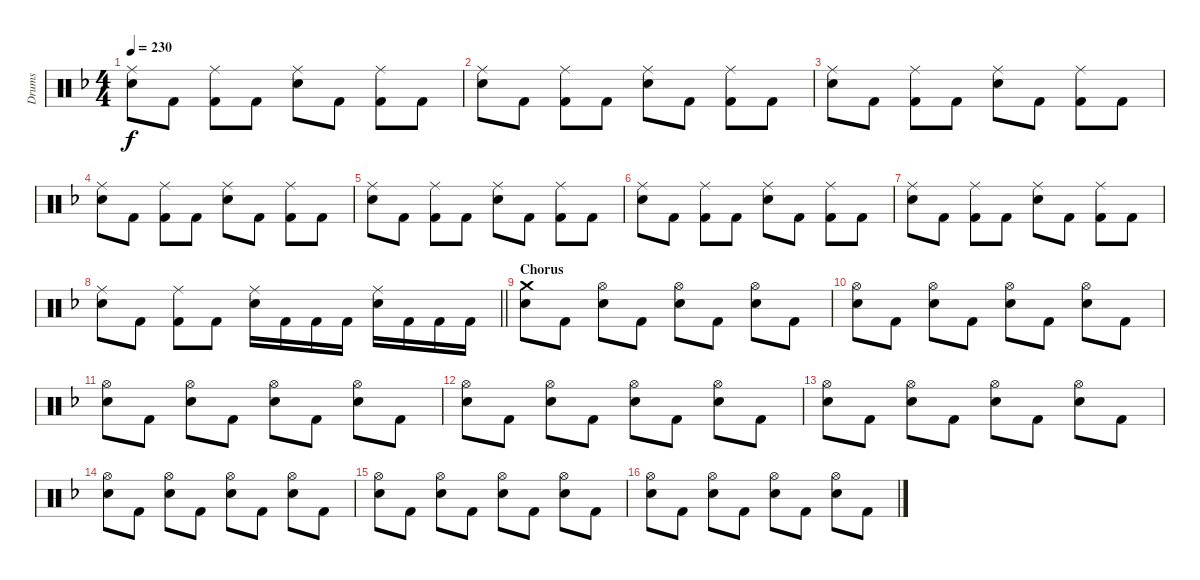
\track ("Drums" "Drums") {instrument percussion}
\staff {score}
\articulation defaults
\ts (4 4)
\tempo 230
\clef neutral
\ks f
("Ride (middle)" "Snare (hit) 2").8{dy f} "Kick (hit) 2".8 ("Ride (middle)" "Kick (hit) 2").8 "Kick (hit) 2".8 ("Ride (middle)" "Snare (hit) 2").8 "Kick (hit) 2".8 ("Ride (middle)" "Kick (hit) 2").8 "Kick (hit) 2".8 |
("Ride (middle)" "Snare (hit) 2").8 "Kick (hit) 2".8 ("Ride (middle)" "Kick (hit) 2").8 "Kick (hit) 2".8 ("Ride (middle)" "Snare (hit) 2").8 "Kick (hit) 2".8 ("Ride (middle)" "Kick (hit) 2").8 "Kick (hit) 2".8 |
("Ride (middle)" "Snare (hit) 2").8 "Kick (hit) 2".8 ("Ride (middle)" "Kick (hit) 2").8 "Kick (hit) 2".8 ("Ride (middle)" "Snare (hit) 2").8 "Kick (hit) 2".8 ("Ride (middle)" "Kick (hit) 2").8 "Kick (hit) 2".8 |
("Ride (middle)" "Snare (hit) 2").8 "Kick (hit) 2".8 ("Ride (middle)" "Kick (hit) 2").8 "Kick (hit) 2".8 ("Ride (middle)" "Snare (hit) 2").8 "Kick (hit) 2".8 ("Ride (middle)" "Kick (hit) 2").8 "Kick (hit) 2".8 |
("Ride (middle)" "Snare (hit) 2").8 "Kick (hit) 2".8 ("Ride (middle)" "Kick (hit) 2").8 "Kick (hit) 2".8 ("Ride (middle)" "Snare (hit) 2").8 "Kick (hit) 2".8 ("Ride (middle)" "Kick (hit) 2").8 "Kick (hit) 2".8 |
("Ride (middle)" "Snare (hit) 2").8 "Kick (hit) 2".8 ("Ride (middle)" "Kick (hit) 2").8 "Kick (hit) 2".8 ("Ride (middle)" "Snare (hit) 2").8 "Kick (hit) 2".8 ("Ride (middle)" "Kick (hit) 2").8 "Kick (hit) 2".8 |
("Ride (middle)" "Snare (hit) 2").8 "Kick (hit) 2".8 ("Ride (middle)" "Kick (hit) 2").8 "Kick (hit) 2".8 ("Ride (middle)" "Snare (hit) 2").8 "Kick (hit) 2".8 ("Ride (middle)" "Kick (hit) 2").8 "Kick (hit) 2".8 |
\barLineRight lightlight
("Ride (middle)" "Snare (hit) 2").8 "Kick (hit) 2".8 ("Ride (middle)" "Kick (hit) 2").8 "Kick (hit) 2".8 ("Ride (middle)" "Snare (hit) 2").16 "Kick (hit) 2".16 "Kick (hit) 2".16 "Kick (hit) 2".16 ("Ride (middle)" "Snare (hit) 2").16 "Kick (hit) 2".16 "Kick (hit) 2".16 "Kick (hit) 2".16 |
\section ("" "Chorus")
("Crash medium (hit)" "Snare (hit) 2").8 "Kick (hit) 2".8 ("Hi-Hat (open)" "Snare (hit) 2").8 "Kick (hit) 2".8 ("Hi-Hat (open)" "Snare (hit) 2").8 "Kick (hit) 2".8 ("Hi-Hat (open)" "Snare (hit) 2").8 "Kick (hit) 2".8 |
("Hi-Hat (open)" "Snare (hit) 2").8 "Kick (hit) 2".8 ("Hi-Hat (open)" "Snare (hit) 2").8 "Kick (hit) 2".8 ("Hi-Hat (open)" "Snare (hit) 2").8 "Kick (hit) 2".8 ("Hi-Hat (open)" "Snare (hit) 2").8 "Kick (hit) 2".8 |
("Hi-Hat (open)" "Snare (hit) 2").8 "Kick (hit) 2".8 ("Hi-Hat (open)" "Snare (hit) 2").8 "Kick (hit) 2".8 ("Hi-Hat (open)" "Snare (hit) 2").8 "Kick (hit) 2".8 ("Hi-Hat (open)" "Snare (hit) 2").8 "Kick (hit) 2".8 |
("Hi-Hat (open)" "Snare (hit) 2").8 "Kick (hit) 2".8 ("Hi-Hat (open)" "Snare (hit) 2").8 "Kick (hit) 2".8 ("Hi-Hat (open)" "Snare (hit) 2").8 "Kick (hit) 2".8 ("Hi-Hat (open)" "Snare (hit) 2").8 "Kick (hit) 2".8 |
("Hi-Hat (open)" "Snare (hit) 2").8 "Kick (hit) 2".8 ("Hi-Hat (open)" "Snare (hit) 2").8 "Kick (hit) 2".8 ("Hi-Hat (open)" "Snare (hit) 2").8 "Kick (hit) 2".8 ("Hi-Hat (open)" "Snare (hit) 2").8 "Kick (hit) 2".8 |
("Hi-Hat (open)" "Snare (hit) 2").8 "Kick (hit) 2".8 ("Hi-Hat (open)" "Snare (hit) 2").8 "Kick (hit) 2".8 ("Hi-Hat (open)" "Snare (hit) 2").8 "Kick (hit) 2".8 ("Hi-Hat (open)" "Snare (hit) 2").8 "Kick (hit) 2".8 |
("Hi-Hat (open)" "Snare (hit) 2").8 "Kick (hit) 2".8 ("Hi-Hat (open)" "Snare (hit) 2").8 "Kick (hit) 2".8 ("Hi-Hat (open)" "Snare (hit) 2").8 "Kick (hit) 2".8 ("Hi-Hat (open)" "Snare (hit) 2").8 "Kick (hit) 2".8 |
("Hi-Hat (open)" "Snare (hit) 2").8 "Kick (hit) 2".8 ("Hi-Hat (open)" "Snare (hit) 2").8 "Kick (hit) 2".8 ("Hi-Hat (open)" "Snare (hit) 2").8 "Kick (hit) 2".8 ("Hi-Hat (open)" "Snare (hit) 2").8 "Kick (hit) 2".8
